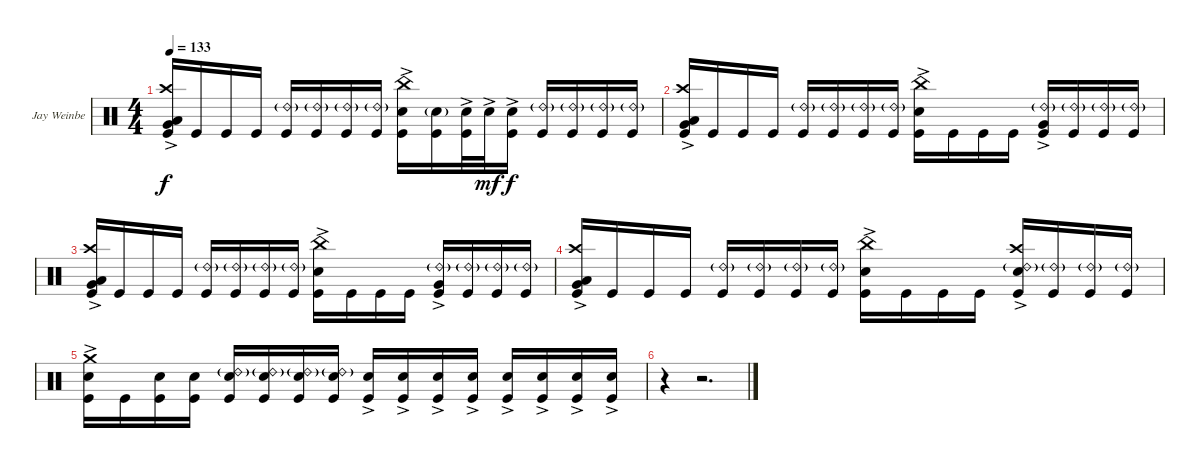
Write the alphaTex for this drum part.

\bracketExtendMode groupsimilarinstruments
\firstSystemTrackNameOrientation horizontal
\otherSystemsTrackNameOrientation horizontal
\track ("Jay Weinberg" "Jay Weinbe") {instrument percussion}
\staff {score}
\articulation defaults
\ts (4 4)
\tempo 133
\clef neutral
\ks c
("Kick (hit)" "Crash high (hit)" "Very Low Tom (hit)"{ac} "Low Tom (hit)"{ac}).16{dy f} "Kick (hit)".16 "Kick (hit)".16 "Kick (hit)".16 ("Kick (hit)" "Ride (bell) 2"{g}).16 ("Kick (hit)" "Ride (bell) 2"{g}).16 ("Kick (hit)" "Ride (bell) 2"{g}).16 ("Kick (hit)" "Ride (bell) 2"{g}).16 ("Kick (hit)" "Snare (hit) 2"{ac} "China (hit)"{ac}).16 ("Kick (hit)" "Snare (hit) 2"{g}).16 ("Kick (hit)" "Snare (hit) 2"{ac}).32 "Snare (hit) 2"{ac}.32{dy mf} ("Kick (hit)" "Snare (hit) 2"{ac}).16{dy f} ("Kick (hit)" "Ride (bell) 2"{g}).16 ("Kick (hit)" "Ride (bell) 2"{g}).16 ("Kick (hit)" "Ride (bell) 2"{g}).16 ("Kick (hit)" "Ride (bell) 2"{g}).16 |
("Kick (hit)" "Crash high (hit)" "Very Low Tom (hit)"{ac} "Low Tom (hit)"{ac}).16 "Kick (hit)".16 "Kick (hit)".16 "Kick (hit)".16 ("Kick (hit)" "Ride (bell) 2"{g}).16 ("Kick (hit)" "Ride (bell) 2"{g}).16 ("Kick (hit)" "Ride (bell) 2"{g}).16 ("Kick (hit)" "Ride (bell) 2"{g}).16 ("Kick (hit)" "Snare (hit) 2"{ac} "China (hit)"{ac}).16 "Kick (hit)".16 "Kick (hit)".16 "Kick (hit)".16 ("Kick (hit)" "Ride (bell) 2"{g} "Very Low Tom (hit)"{ac}).16 ("Kick (hit)" "Ride (bell) 2"{g}).16 ("Kick (hit)" "Ride (bell) 2"{g}).16 ("Kick (hit)" "Ride (bell) 2"{g}).16 |
("Kick (hit)" "Crash high (hit)" "Very Low Tom (hit)"{ac} "Low Tom (hit)"{ac}).16 "Kick (hit)".16 "Kick (hit)".16 "Kick (hit)".16 ("Kick (hit)" "Ride (bell) 2"{g}).16 ("Kick (hit)" "Ride (bell) 2"{g}).16 ("Kick (hit)" "Ride (bell) 2"{g}).16 ("Kick (hit)" "Ride (bell) 2"{g}).16 ("Kick (hit)" "Snare (hit) 2"{ac} "China (hit)"{ac}).16 "Kick (hit)".16 "Kick (hit)".16 "Kick (hit)".16 ("Kick (hit)" "Ride (bell) 2"{g} "Very Low Tom (hit)"{ac}).16 ("Kick (hit)" "Ride (bell) 2"{g}).16 ("Kick (hit)" "Ride (bell) 2"{g}).16 ("Kick (hit)" "Ride (bell) 2"{g}).16 |
("Kick (hit)" "Crash high (hit)" "Very Low Tom (hit)"{ac} "Low Tom (hit)"{ac}).16 "Kick (hit)".16 "Kick (hit)".16 "Kick (hit)".16 ("Kick (hit)" "Ride (bell) 2"{g}).16 ("Kick (hit)" "Ride (bell) 2"{g}).16 ("Kick (hit)" "Ride (bell) 2"{g}).16 ("Kick (hit)" "Ride (bell) 2"{g}).16 ("Kick (hit)" "Snare (hit) 2"{ac} "China (hit)"{ac}).16 "Kick (hit)".16 "Kick (hit)".16 "Kick (hit)".16 ("Kick (hit)" "Ride (bell) 2"{g} "Snare (hit) 2"{ac} "Crash high (hit)").16 ("Kick (hit)" "Ride (bell) 2"{g}).16 ("Kick (hit)" "Ride (bell) 2"{g}).16 ("Kick (hit)" "Ride (bell) 2"{g}).16 |
("Kick (hit)" "Snare (hit) 2"{ac} "Crash medium (hit)"{ac}).16 "Kick (hit)".16 ("Kick (hit)" "Snare (hit) 2").16 ("Kick (hit)" "Snare (hit) 2").16 ("Kick (hit)" "Ride (bell) 2"{g} "Snare (hit) 2").16 ("Kick (hit)" "Ride (bell) 2"{g} "Snare (hit) 2").16 ("Kick (hit)" "Ride (bell) 2"{g} "Snare (hit) 2").16 ("Kick (hit)" "Ride (bell) 2"{g} "Snare (hit) 2").16 ("Kick (hit)" "Snare (hit) 2"{ac}).16 ("Kick (hit)" "Snare (hit) 2"{ac}).16 ("Kick (hit)" "Snare (hit) 2"{ac}).16 ("Kick (hit)" "Snare (hit) 2"{ac}).16 ("Kick (hit)" "Snare (hit) 2"{ac}).16 ("Kick (hit)" "Snare (hit) 2"{ac}).16 ("Kick (hit)" "Snare (hit) 2"{ac}).16 ("Kick (hit)" "Snare (hit) 2"{ac}).16 |
r.4 r.2{d}
